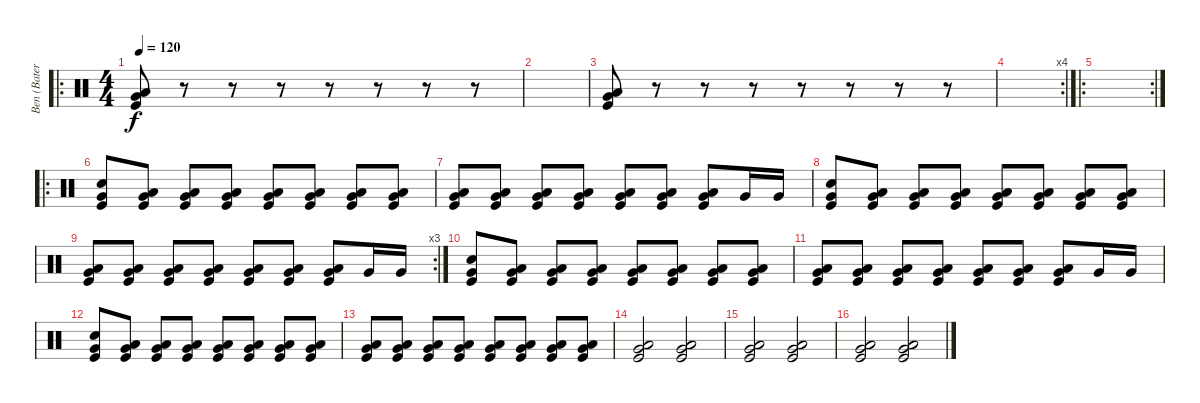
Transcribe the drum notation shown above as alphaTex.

\track ("Ben (Bateria)" "Ben (Bater") {instrument percussion}
\staff {score}
\articulation defaults
\ro
\ts (4 4)
\tempo 120
\clef neutral
\ks c
("Kick (hit)" "Very Low Tom (hit)" "Low Tom (hit)").8{dy f} r.8 r.8 r.8 r.8 r.8 r.8 r.8 |
|
("Kick (hit)" "Very Low Tom (hit)" "Low Tom (hit)").8 r.8 r.8 r.8 r.8 r.8 r.8 r.8 |
\rc 4
|
\ro
\rc 2
|
\ro
("Kick (hit)" "Very Low Tom (hit)" "Snare (hit) 2").8 ("Kick (hit)" "Very Low Tom (hit)" "Low Tom (hit)").8 ("Kick (hit)" "Very Low Tom (hit)" "Low Tom (hit)").8 ("Kick (hit)" "Very Low Tom (hit)" "Low Tom (hit)").8 ("Kick (hit)" "Very Low Tom (hit)" "Low Tom (hit)").8 ("Kick (hit)" "Very Low Tom (hit)" "Low Tom (hit)").8 ("Kick (hit)" "Very Low Tom (hit)" "Low Tom (hit)").8 ("Kick (hit)" "Very Low Tom (hit)" "Low Tom (hit)").8 |
("Kick (hit)" "Very Low Tom (hit)" "Low Tom (hit)").8 ("Kick (hit)" "Very Low Tom (hit)" "Low Tom (hit)").8 ("Kick (hit)" "Very Low Tom (hit)" "Low Tom (hit)").8 ("Kick (hit)" "Very Low Tom (hit)" "Low Tom (hit)").8 ("Kick (hit)" "Very Low Tom (hit)" "Low Tom (hit)").8 ("Kick (hit)" "Very Low Tom (hit)" "Low Tom (hit)").8 ("Kick (hit)" "Very Low Tom (hit)" "Low Tom (hit)").8 "Very Low Tom (hit)".16 "Very Low Tom (hit)".16 |
("Kick (hit)" "Very Low Tom (hit)" "Snare (hit) 2").8 ("Kick (hit)" "Very Low Tom (hit)" "Low Tom (hit)").8 ("Kick (hit)" "Very Low Tom (hit)" "Low Tom (hit)").8 ("Kick (hit)" "Very Low Tom (hit)" "Low Tom (hit)").8 ("Kick (hit)" "Very Low Tom (hit)" "Low Tom (hit)").8 ("Kick (hit)" "Very Low Tom (hit)" "Low Tom (hit)").8 ("Kick (hit)" "Very Low Tom (hit)" "Low Tom (hit)").8 ("Kick (hit)" "Very Low Tom (hit)" "Low Tom (hit)").8 |
\rc 3
("Kick (hit)" "Very Low Tom (hit)" "Low Tom (hit)").8 ("Kick (hit)" "Very Low Tom (hit)" "Low Tom (hit)").8 ("Kick (hit)" "Very Low Tom (hit)" "Low Tom (hit)").8 ("Kick (hit)" "Very Low Tom (hit)" "Low Tom (hit)").8 ("Kick (hit)" "Very Low Tom (hit)" "Low Tom (hit)").8 ("Kick (hit)" "Very Low Tom (hit)" "Low Tom (hit)").8 ("Kick (hit)" "Very Low Tom (hit)" "Low Tom (hit)").8 "Very Low Tom (hit)".16 "Very Low Tom (hit)".16 |
("Kick (hit)" "Very Low Tom (hit)" "Snare (hit) 2").8 ("Kick (hit)" "Very Low Tom (hit)" "Low Tom (hit)").8 ("Kick (hit)" "Very Low Tom (hit)" "Low Tom (hit)").8 ("Kick (hit)" "Very Low Tom (hit)" "Low Tom (hit)").8 ("Kick (hit)" "Very Low Tom (hit)" "Low Tom (hit)").8 ("Kick (hit)" "Very Low Tom (hit)" "Low Tom (hit)").8 ("Kick (hit)" "Very Low Tom (hit)" "Low Tom (hit)").8 ("Kick (hit)" "Very Low Tom (hit)" "Low Tom (hit)").8 |
("Kick (hit)" "Very Low Tom (hit)" "Low Tom (hit)").8 ("Kick (hit)" "Very Low Tom (hit)" "Low Tom (hit)").8 ("Kick (hit)" "Very Low Tom (hit)" "Low Tom (hit)").8 ("Kick (hit)" "Very Low Tom (hit)" "Low Tom (hit)").8 ("Kick (hit)" "Very Low Tom (hit)" "Low Tom (hit)").8 ("Kick (hit)" "Very Low Tom (hit)" "Low Tom (hit)").8 ("Kick (hit)" "Very Low Tom (hit)" "Low Tom (hit)").8 "Very Low Tom (hit)".16 "Very Low Tom (hit)".16 |
("Kick (hit)" "Very Low Tom (hit)" "Snare (hit) 2").8 ("Kick (hit)" "Very Low Tom (hit)" "Low Tom (hit)").8 ("Kick (hit)" "Very Low Tom (hit)" "Low Tom (hit)").8 ("Kick (hit)" "Very Low Tom (hit)" "Low Tom (hit)").8 ("Kick (hit)" "Very Low Tom (hit)" "Low Tom (hit)").8 ("Kick (hit)" "Very Low Tom (hit)" "Low Tom (hit)").8 ("Kick (hit)" "Very Low Tom (hit)" "Low Tom (hit)").8 ("Kick (hit)" "Very Low Tom (hit)" "Low Tom (hit)").8 |
("Kick (hit)" "Very Low Tom (hit)" "Low Tom (hit)").8 ("Kick (hit)" "Very Low Tom (hit)" "Low Tom (hit)").8 ("Kick (hit)" "Very Low Tom (hit)" "Low Tom (hit)").8 ("Kick (hit)" "Very Low Tom (hit)" "Low Tom (hit)").8 ("Kick (hit)" "Very Low Tom (hit)" "Low Tom (hit)").8 ("Kick (hit)" "Very Low Tom (hit)" "Low Tom (hit)").8 ("Kick (hit)" "Very Low Tom (hit)" "Low Tom (hit)").8 ("Kick (hit)" "Very Low Tom (hit)" "Low Tom (hit)").8 |
("Kick (hit)" "Very Low Tom (hit)" "Low Tom (hit)").2 ("Kick (hit)" "Very Low Tom (hit)" "Low Tom (hit)").2 |
("Kick (hit)" "Very Low Tom (hit)" "Low Tom (hit)").2 ("Kick (hit)" "Very Low Tom (hit)" "Low Tom (hit)").2 |
("Kick (hit)" "Very Low Tom (hit)" "Low Tom (hit)").2 ("Kick (hit)" "Very Low Tom (hit)" "Low Tom (hit)").2
